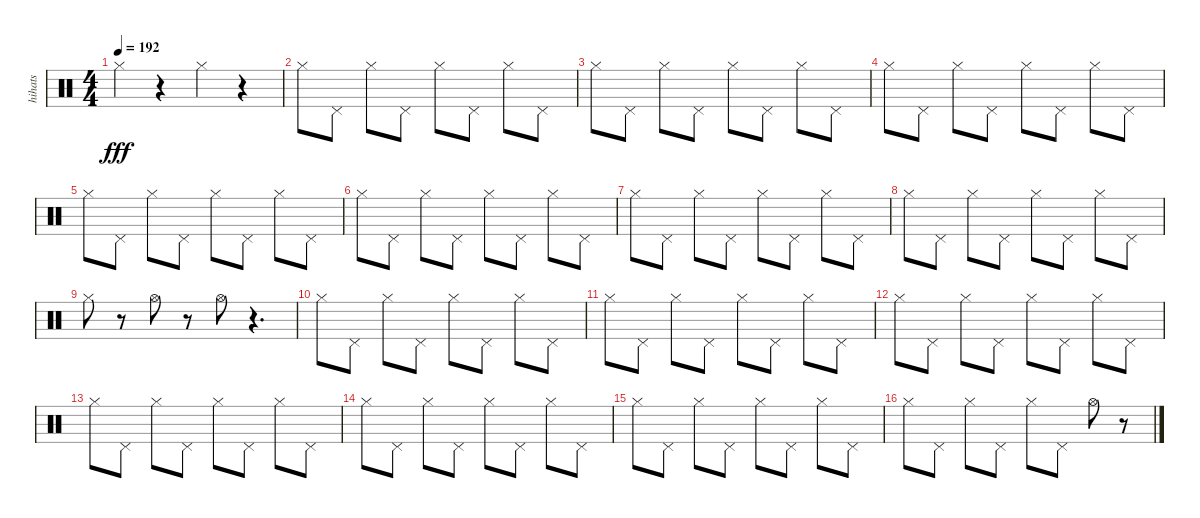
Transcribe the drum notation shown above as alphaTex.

\track ("hihats" "hihats") {instrument percussion}
\staff {score}
\articulation defaults
\ts (4 4)
\tempo 192
\clef neutral
\ks c "Hi-Hat (closed)".4{dy fff}
r.4 "Hi-Hat (closed)".4 r.4 |
"Hi-Hat (closed)".8 "Pedal Hi-Hat (hit)".8 "Hi-Hat (closed)".8 "Pedal Hi-Hat (hit)".8 "Hi-Hat (closed)".8 "Pedal Hi-Hat (hit)".8 "Hi-Hat (closed)".8 "Pedal Hi-Hat (hit)".8 |
"Hi-Hat (closed)".8 "Pedal Hi-Hat (hit)".8 "Hi-Hat (closed)".8 "Pedal Hi-Hat (hit)".8 "Hi-Hat (closed)".8 "Pedal Hi-Hat (hit)".8 "Hi-Hat (closed)".8 "Pedal Hi-Hat (hit)".8 |
"Hi-Hat (closed)".8 "Pedal Hi-Hat (hit)".8 "Hi-Hat (closed)".8 "Pedal Hi-Hat (hit)".8 "Hi-Hat (closed)".8 "Pedal Hi-Hat (hit)".8 "Hi-Hat (closed)".8 "Pedal Hi-Hat (hit)".8 |
"Hi-Hat (closed)".8 "Pedal Hi-Hat (hit)".8 "Hi-Hat (closed)".8 "Pedal Hi-Hat (hit)".8 "Hi-Hat (closed)".8 "Pedal Hi-Hat (hit)".8 "Hi-Hat (closed)".8 "Pedal Hi-Hat (hit)".8 |
"Hi-Hat (closed)".8 "Pedal Hi-Hat (hit)".8 "Hi-Hat (closed)".8 "Pedal Hi-Hat (hit)".8 "Hi-Hat (closed)".8 "Pedal Hi-Hat (hit)".8 "Hi-Hat (closed)".8 "Pedal Hi-Hat (hit)".8 |
"Hi-Hat (closed)".8 "Pedal Hi-Hat (hit)".8 "Hi-Hat (closed)".8 "Pedal Hi-Hat (hit)".8 "Hi-Hat (closed)".8 "Pedal Hi-Hat (hit)".8 "Hi-Hat (closed)".8 "Pedal Hi-Hat (hit)".8 |
"Hi-Hat (closed)".8 "Pedal Hi-Hat (hit)".8 "Hi-Hat (closed)".8 "Pedal Hi-Hat (hit)".8 "Hi-Hat (closed)".8 "Pedal Hi-Hat (hit)".8 "Hi-Hat (closed)".8 "Pedal Hi-Hat (hit)".8 |
"Hi-Hat (closed)".8 r.8 "Hi-Hat (open)".8 r.8 "Hi-Hat (open)".8 r.4{d} |
"Hi-Hat (closed)".8 "Pedal Hi-Hat (hit)".8 "Hi-Hat (closed)".8 "Pedal Hi-Hat (hit)".8 "Hi-Hat (closed)".8 "Pedal Hi-Hat (hit)".8 "Hi-Hat (closed)".8 "Pedal Hi-Hat (hit)".8 |
"Hi-Hat (closed)".8 "Pedal Hi-Hat (hit)".8 "Hi-Hat (closed)".8 "Pedal Hi-Hat (hit)".8 "Hi-Hat (closed)".8 "Pedal Hi-Hat (hit)".8 "Hi-Hat (closed)".8 "Pedal Hi-Hat (hit)".8 |
"Hi-Hat (closed)".8 "Pedal Hi-Hat (hit)".8 "Hi-Hat (closed)".8 "Pedal Hi-Hat (hit)".8 "Hi-Hat (closed)".8 "Pedal Hi-Hat (hit)".8 "Hi-Hat (closed)".8 "Pedal Hi-Hat (hit)".8 |
"Hi-Hat (closed)".8 "Pedal Hi-Hat (hit)".8 "Hi-Hat (closed)".8 "Pedal Hi-Hat (hit)".8 "Hi-Hat (closed)".8 "Pedal Hi-Hat (hit)".8 "Hi-Hat (closed)".8 "Pedal Hi-Hat (hit)".8 |
"Hi-Hat (closed)".8 "Pedal Hi-Hat (hit)".8 "Hi-Hat (closed)".8 "Pedal Hi-Hat (hit)".8 "Hi-Hat (closed)".8 "Pedal Hi-Hat (hit)".8 "Hi-Hat (closed)".8 "Pedal Hi-Hat (hit)".8 |
"Hi-Hat (closed)".8 "Pedal Hi-Hat (hit)".8 "Hi-Hat (closed)".8 "Pedal Hi-Hat (hit)".8 "Hi-Hat (closed)".8 "Pedal Hi-Hat (hit)".8 "Hi-Hat (closed)".8 "Pedal Hi-Hat (hit)".8 |
"Hi-Hat (closed)".8 "Pedal Hi-Hat (hit)".8 "Hi-Hat (closed)".8 "Pedal Hi-Hat (hit)".8 "Hi-Hat (closed)".8 "Pedal Hi-Hat (hit)".8 "Hi-Hat (open)".8 r.8
